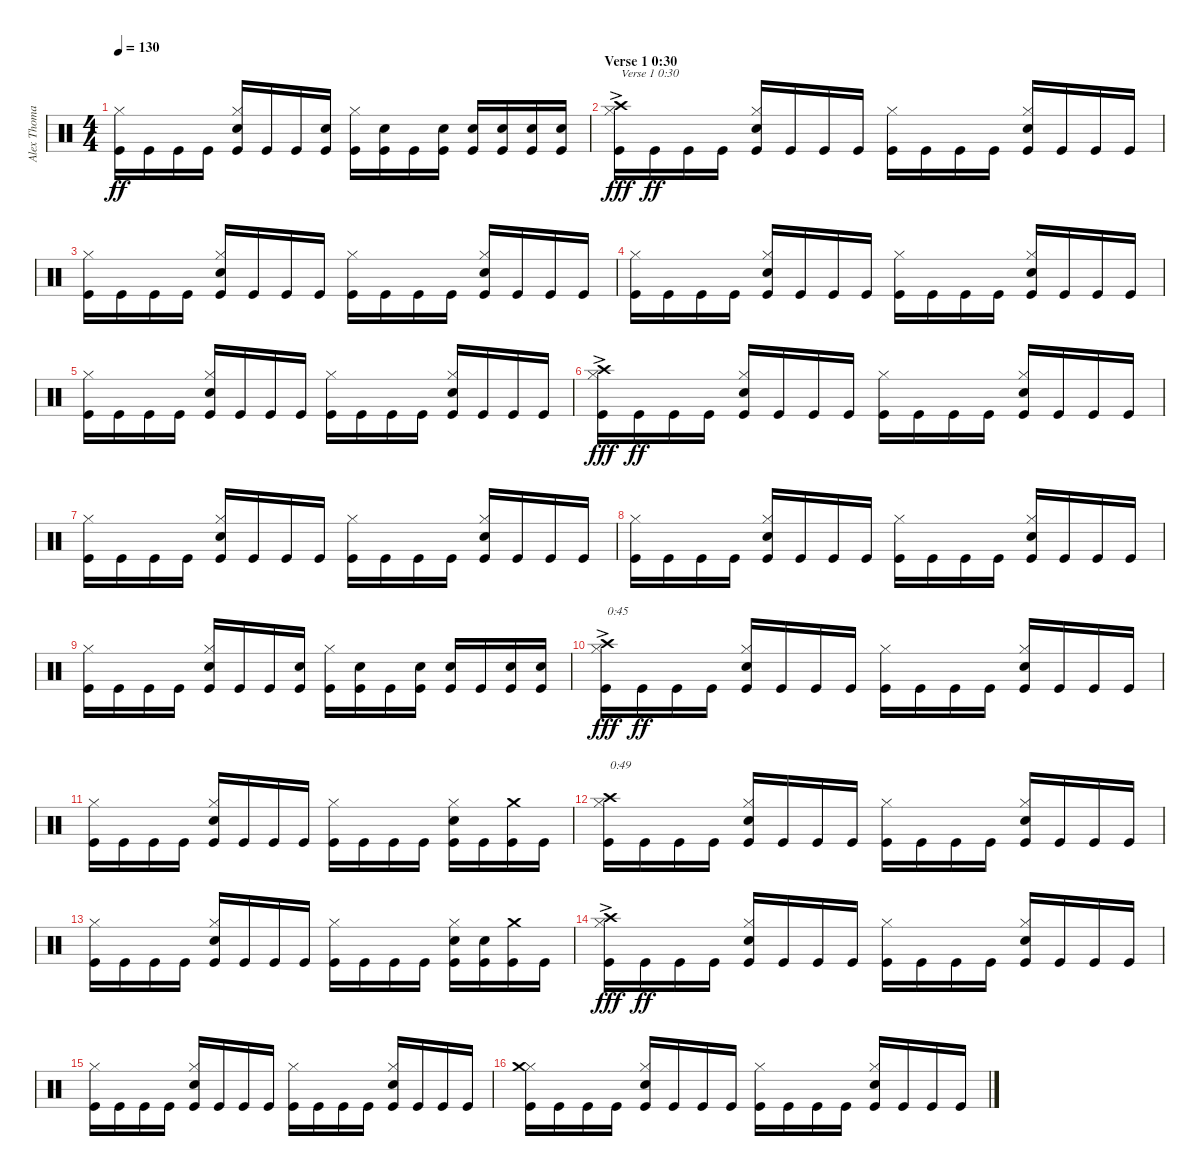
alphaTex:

\track ("Alex Thomas (Drums)" "Alex Thoma") {instrument percussion}
\staff {score}
\articulation defaults
\ts (4 4)
\tempo 130
\clef neutral
\ks c
("Kick (hit)" "Hi-Hat (closed)").16{dy ff} "Kick (hit)".16 "Kick (hit)".16 "Kick (hit)".16 ("Kick (hit)" "Electric Snare (hit)" "Hi-Hat (closed)").16 "Kick (hit)".16 "Kick (hit)".16 ("Kick (hit)" "Electric Snare (hit)").16 ("Kick (hit)" "Hi-Hat (closed)").16 ("Kick (hit)" "Electric Snare (hit)").16 "Kick (hit)".16 ("Kick (hit)" "Electric Snare (hit)").16 ("Kick (hit)" "Electric Snare (hit)").16 ("Kick (hit)" "Electric Snare (hit)").16 ("Kick (hit)" "Electric Snare (hit)").16 ("Kick (hit)" "Electric Snare (hit)").16 |
\section ("" "Verse 1 0:30")
("Kick (hit)" "Hi-Hat (closed)" "Crash high (hit)"{ac}).16{txt "Verse 1 0:30" dy fff} "Kick (hit)".16{dy ff} "Kick (hit)".16 "Kick (hit)".16 ("Kick (hit)" "Electric Snare (hit)" "Hi-Hat (closed)").16 "Kick (hit)".16 "Kick (hit)".16 "Kick (hit)".16 ("Kick (hit)" "Hi-Hat (closed)").16 "Kick (hit)".16 "Kick (hit)".16 "Kick (hit)".16 ("Kick (hit)" "Electric Snare (hit)" "Hi-Hat (closed)").16 "Kick (hit)".16 "Kick (hit)".16 "Kick (hit)".16 |
("Kick (hit)" "Hi-Hat (closed)").16 "Kick (hit)".16 "Kick (hit)".16 "Kick (hit)".16 ("Kick (hit)" "Electric Snare (hit)" "Hi-Hat (closed)").16 "Kick (hit)".16 "Kick (hit)".16 "Kick (hit)".16 ("Kick (hit)" "Hi-Hat (closed)").16 "Kick (hit)".16 "Kick (hit)".16 "Kick (hit)".16 ("Kick (hit)" "Electric Snare (hit)" "Hi-Hat (closed)").16 "Kick (hit)".16 "Kick (hit)".16 "Kick (hit)".16 |
("Kick (hit)" "Hi-Hat (closed)").16 "Kick (hit)".16 "Kick (hit)".16 "Kick (hit)".16 ("Kick (hit)" "Electric Snare (hit)" "Hi-Hat (closed)").16 "Kick (hit)".16 "Kick (hit)".16 "Kick (hit)".16 ("Kick (hit)" "Hi-Hat (closed)").16 "Kick (hit)".16 "Kick (hit)".16 "Kick (hit)".16 ("Kick (hit)" "Electric Snare (hit)" "Hi-Hat (closed)").16 "Kick (hit)".16 "Kick (hit)".16 "Kick (hit)".16 |
("Kick (hit)" "Hi-Hat (closed)").16 "Kick (hit)".16 "Kick (hit)".16 "Kick (hit)".16 ("Kick (hit)" "Electric Snare (hit)" "Hi-Hat (closed)").16 "Kick (hit)".16 "Kick (hit)".16 "Kick (hit)".16 ("Kick (hit)" "Hi-Hat (closed)").16 "Kick (hit)".16 "Kick (hit)".16 "Kick (hit)".16 ("Kick (hit)" "Electric Snare (hit)" "Hi-Hat (closed)").16 "Kick (hit)".16 "Kick (hit)".16 "Kick (hit)".16 |
("Kick (hit)" "Hi-Hat (closed)" "Crash high (hit)"{ac}).16{dy fff} "Kick (hit)".16{dy ff} "Kick (hit)".16 "Kick (hit)".16 ("Kick (hit)" "Electric Snare (hit)" "Hi-Hat (closed)").16 "Kick (hit)".16 "Kick (hit)".16 "Kick (hit)".16 ("Kick (hit)" "Hi-Hat (closed)").16 "Kick (hit)".16 "Kick (hit)".16 "Kick (hit)".16 ("Kick (hit)" "Electric Snare (hit)" "Hi-Hat (closed)").16 "Kick (hit)".16 "Kick (hit)".16 "Kick (hit)".16 |
("Kick (hit)" "Hi-Hat (closed)").16 "Kick (hit)".16 "Kick (hit)".16 "Kick (hit)".16 ("Kick (hit)" "Electric Snare (hit)" "Hi-Hat (closed)").16 "Kick (hit)".16 "Kick (hit)".16 "Kick (hit)".16 ("Kick (hit)" "Hi-Hat (closed)").16 "Kick (hit)".16 "Kick (hit)".16 "Kick (hit)".16 ("Kick (hit)" "Electric Snare (hit)" "Hi-Hat (closed)").16 "Kick (hit)".16 "Kick (hit)".16 "Kick (hit)".16 |
("Kick (hit)" "Hi-Hat (closed)").16 "Kick (hit)".16 "Kick (hit)".16 "Kick (hit)".16 ("Kick (hit)" "Electric Snare (hit)" "Hi-Hat (closed)").16 "Kick (hit)".16 "Kick (hit)".16 "Kick (hit)".16 ("Kick (hit)" "Hi-Hat (closed)").16 "Kick (hit)".16 "Kick (hit)".16 "Kick (hit)".16 ("Kick (hit)" "Electric Snare (hit)" "Hi-Hat (closed)").16 "Kick (hit)".16 "Kick (hit)".16 "Kick (hit)".16 |
("Kick (hit)" "Hi-Hat (closed)").16 "Kick (hit)".16 "Kick (hit)".16 "Kick (hit)".16 ("Kick (hit)" "Electric Snare (hit)" "Hi-Hat (closed)").16 "Kick (hit)".16 "Kick (hit)".16 ("Kick (hit)" "Electric Snare (hit)").16 ("Kick (hit)" "Hi-Hat (closed)").16 ("Kick (hit)" "Electric Snare (hit)").16 "Kick (hit)".16 ("Kick (hit)" "Electric Snare (hit)").16 ("Kick (hit)" "Electric Snare (hit)").16 "Kick (hit)".16 ("Kick (hit)" "Electric Snare (hit)").16 ("Kick (hit)" "Electric Snare (hit)").16 |
("Kick (hit)" "Hi-Hat (closed)" "Crash high (hit)"{ac}).16{txt "0:45" dy fff} "Kick (hit)".16{dy ff} "Kick (hit)".16 "Kick (hit)".16 ("Kick (hit)" "Electric Snare (hit)" "Hi-Hat (closed)").16 "Kick (hit)".16 "Kick (hit)".16 "Kick (hit)".16 ("Kick (hit)" "Hi-Hat (closed)").16 "Kick (hit)".16 "Kick (hit)".16 "Kick (hit)".16 ("Kick (hit)" "Electric Snare (hit)" "Hi-Hat (closed)").16 "Kick (hit)".16 "Kick (hit)".16 "Kick (hit)".16 |
("Kick (hit)" "Hi-Hat (closed)").16 "Kick (hit)".16 "Kick (hit)".16 "Kick (hit)".16 ("Kick (hit)" "Electric Snare (hit)" "Hi-Hat (closed)").16 "Kick (hit)".16 "Kick (hit)".16 "Kick (hit)".16 ("Kick (hit)" "Hi-Hat (closed)").16 "Kick (hit)".16 "Kick (hit)".16 "Kick (hit)".16 ("Kick (hit)" "Electric Snare (hit)" "Hi-Hat (closed)").16 "Kick (hit)".16 ("Kick (hit)" "Crash medium (hit)").16 "Kick (hit)".16 |
("Kick (hit)" "Hi-Hat (closed)" "Crash high (hit)").16{txt "0:49"} "Kick (hit)".16 "Kick (hit)".16 "Kick (hit)".16 ("Kick (hit)" "Electric Snare (hit)" "Hi-Hat (closed)").16 "Kick (hit)".16 "Kick (hit)".16 "Kick (hit)".16 ("Kick (hit)" "Hi-Hat (closed)").16 "Kick (hit)".16 "Kick (hit)".16 "Kick (hit)".16 ("Kick (hit)" "Electric Snare (hit)" "Hi-Hat (closed)").16 "Kick (hit)".16 "Kick (hit)".16 "Kick (hit)".16 |
("Kick (hit)" "Hi-Hat (closed)").16 "Kick (hit)".16 "Kick (hit)".16 "Kick (hit)".16 ("Kick (hit)" "Electric Snare (hit)" "Hi-Hat (closed)").16 "Kick (hit)".16 "Kick (hit)".16 "Kick (hit)".16 ("Kick (hit)" "Hi-Hat (closed)").16 "Kick (hit)".16 "Kick (hit)".16 "Kick (hit)".16 ("Kick (hit)" "Electric Snare (hit)" "Hi-Hat (closed)").16 ("Kick (hit)" "Electric Snare (hit)").16 ("Kick (hit)" "Crash medium (hit)").16 "Kick (hit)".16 |
("Kick (hit)" "Hi-Hat (closed)" "Crash high (hit)"{ac}).16{dy fff} "Kick (hit)".16{dy ff} "Kick (hit)".16 "Kick (hit)".16 ("Kick (hit)" "Electric Snare (hit)" "Hi-Hat (closed)").16 "Kick (hit)".16 "Kick (hit)".16 "Kick (hit)".16 ("Kick (hit)" "Hi-Hat (closed)").16 "Kick (hit)".16 "Kick (hit)".16 "Kick (hit)".16 ("Kick (hit)" "Electric Snare (hit)" "Hi-Hat (closed)").16 "Kick (hit)".16 "Kick (hit)".16 "Kick (hit)".16 |
("Kick (hit)" "Hi-Hat (closed)").16 "Kick (hit)".16 "Kick (hit)".16 "Kick (hit)".16 ("Kick (hit)" "Electric Snare (hit)" "Hi-Hat (closed)").16 "Kick (hit)".16 "Kick (hit)".16 "Kick (hit)".16 ("Kick (hit)" "Hi-Hat (closed)").16 "Kick (hit)".16 "Kick (hit)".16 "Kick (hit)".16 ("Kick (hit)" "Electric Snare (hit)" "Hi-Hat (closed)").16 "Kick (hit)".16 "Kick (hit)".16 "Kick (hit)".16 |
("Kick (hit)" "Hi-Hat (closed)" "Crash medium (hit)").16 "Kick (hit)".16 "Kick (hit)".16 "Kick (hit)".16 ("Kick (hit)" "Electric Snare (hit)" "Hi-Hat (closed)").16 "Kick (hit)".16 "Kick (hit)".16 "Kick (hit)".16 ("Kick (hit)" "Hi-Hat (closed)").16 "Kick (hit)".16 "Kick (hit)".16 "Kick (hit)".16 ("Kick (hit)" "Electric Snare (hit)" "Hi-Hat (closed)").16 "Kick (hit)".16 "Kick (hit)".16 "Kick (hit)".16
